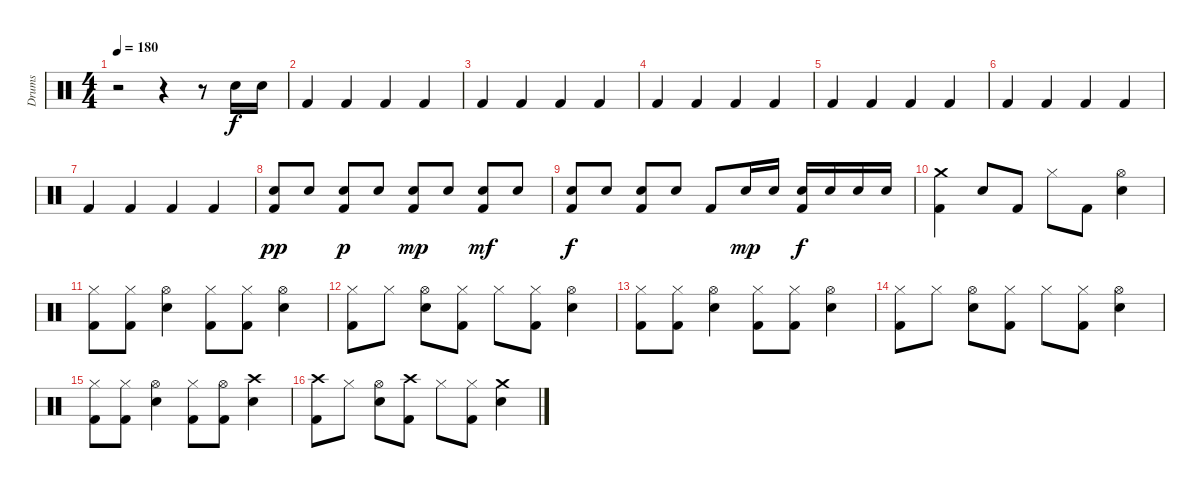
\track ("Drums" "Drums") {instrument percussion}
\staff {score}
\articulation defaults
\ts (4 4)
\tempo 180
\clef neutral
\ks c
r.2{dy f} r.4 r.8 "Electric Snare (hit)".16 "Electric Snare (hit)".16 |
\section ("" "")
"Kick (hit) 2".4 "Kick (hit) 2".4 "Kick (hit) 2".4 "Kick (hit) 2".4 |
"Kick (hit) 2".4 "Kick (hit) 2".4 "Kick (hit) 2".4 "Kick (hit) 2".4 |
"Kick (hit) 2".4 "Kick (hit) 2".4 "Kick (hit) 2".4 "Kick (hit) 2".4 |
"Kick (hit) 2".4 "Kick (hit) 2".4 "Kick (hit) 2".4 "Kick (hit) 2".4 |
"Kick (hit) 2".4 "Kick (hit) 2".4 "Kick (hit) 2".4 "Kick (hit) 2".4 |
"Kick (hit) 2".4 "Kick (hit) 2".4 "Kick (hit) 2".4 "Kick (hit) 2".4 |
("Electric Snare (hit)" "Kick (hit) 2").8{dy pp} "Electric Snare (hit)".8 ("Electric Snare (hit)" "Kick (hit) 2").8{dy p} "Electric Snare (hit)".8 ("Electric Snare (hit)" "Kick (hit) 2").8{dy mp} "Electric Snare (hit)".8 ("Electric Snare (hit)" "Kick (hit) 2").8{dy mf} "Electric Snare (hit)".8 |
("Electric Snare (hit)" "Kick (hit) 2").8{dy f} "Electric Snare (hit)".8 ("Electric Snare (hit)" "Kick (hit) 2").8 "Electric Snare (hit)".8 "Kick (hit) 2".8 "Electric Snare (hit)".16{dy mp} "Electric Snare (hit)".16 ("Electric Snare (hit)" "Kick (hit) 2").16{dy f} "Electric Snare (hit)".16 "Electric Snare (hit)".16 "Electric Snare (hit)".16 |
("Crash medium (hit)" "Kick (hit) 2").4 "Electric Snare (hit)".8 "Kick (hit) 2".8 "Hi-Hat (closed)".8 "Kick (hit) 2".8 ("Hi-Hat (open)" "Electric Snare (hit)").4 |
("Hi-Hat (closed)" "Kick (hit) 2").8 ("Hi-Hat (closed)" "Kick (hit) 2").8 ("Hi-Hat (open)" "Electric Snare (hit)").4 ("Hi-Hat (closed)" "Kick (hit) 2").8 ("Hi-Hat (closed)" "Kick (hit) 2").8 ("Hi-Hat (open)" "Electric Snare (hit)").4 |
("Hi-Hat (closed)" "Kick (hit) 2").8 "Hi-Hat (closed)".8 ("Hi-Hat (open)" "Electric Snare (hit)").8 ("Hi-Hat (closed)" "Kick (hit) 2").8 "Hi-Hat (closed)".8 ("Hi-Hat (closed)" "Kick (hit) 2").8 ("Hi-Hat (open)" "Electric Snare (hit)").4 |
("Hi-Hat (closed)" "Kick (hit) 2").8 ("Hi-Hat (closed)" "Kick (hit) 2").8 ("Hi-Hat (open)" "Electric Snare (hit)").4 ("Hi-Hat (closed)" "Kick (hit) 2").8 ("Hi-Hat (closed)" "Kick (hit) 2").8 ("Hi-Hat (open)" "Electric Snare (hit)").4 |
("Hi-Hat (closed)" "Kick (hit) 2").8 "Hi-Hat (closed)".8 ("Hi-Hat (open)" "Electric Snare (hit)").8 ("Hi-Hat (closed)" "Kick (hit) 2").8 "Hi-Hat (closed)".8 ("Hi-Hat (closed)" "Kick (hit) 2").8 ("Hi-Hat (open)" "Electric Snare (hit)").4 |
("Hi-Hat (closed)" "Kick (hit) 2").8 ("Hi-Hat (closed)" "Kick (hit) 2").8 ("Hi-Hat (open)" "Electric Snare (hit)").4 ("Hi-Hat (closed)" "Kick (hit) 2").8 ("Hi-Hat (open)" "Kick (hit) 2").8 ("Crash high (hit)" "Electric Snare (hit)").4 |
("Crash high (hit)" "Kick (hit) 2").8 "Hi-Hat (closed)".8 ("Hi-Hat (open)" "Electric Snare (hit)").8 ("Crash high (hit)" "Kick (hit) 2").8 "Hi-Hat (closed)".8 ("Hi-Hat (closed)" "Kick (hit) 2").8 ("Crash medium (hit)" "Electric Snare (hit)").4
